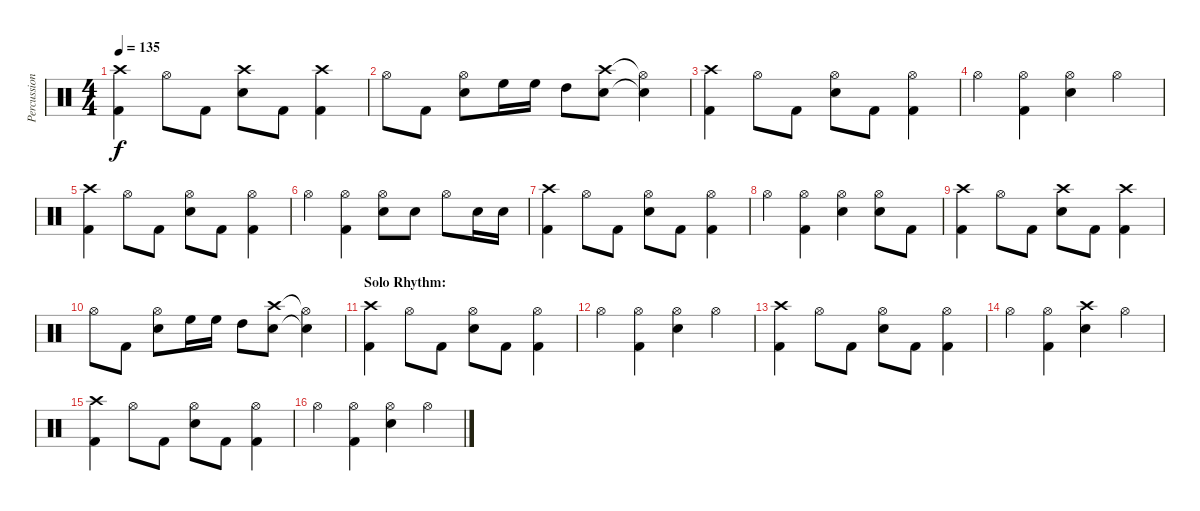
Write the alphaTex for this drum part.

\track ("Percussion" "Percussion") {instrument percussion}
\staff {score}
\articulation defaults
\ts (4 4)
\tempo 135
\clef neutral
\ks c
("Crash high (hit)" "Kick (hit) 2").4{dy f} "Hi-Hat (open)".8 "Kick (hit) 2".8 ("Crash high (hit)" "Electric Snare (hit)").8 "Kick (hit) 2".8 ("Crash high (hit)" "Kick (hit) 2").4 |
"Hi-Hat (open)".8 "Kick (hit) 2".8 ("Hi-Hat (open)" "Electric Snare (hit)").8 "High Floor Tom (hit)".16 "High Floor Tom (hit)".16 "High Tom (hit)".8 ("Crash high (hit)" "Electric Snare (hit)").8 ("Hi-Hat (open)"{t} "Snare (hit)"{t}).4 |
("Crash high (hit)" "Kick (hit) 2").4 "Hi-Hat (open)".8 "Kick (hit) 2".8 ("Hi-Hat (open)" "Electric Snare (hit)").8 "Kick (hit) 2".8 ("Hi-Hat (open)" "Kick (hit) 2").4 |
"Hi-Hat (open)".4 ("Hi-Hat (open)" "Kick (hit) 2").4 ("Hi-Hat (open)" "Electric Snare (hit)").4 "Hi-Hat (open)".4 |
("Crash high (hit)" "Kick (hit) 2").4 "Hi-Hat (open)".8 "Kick (hit) 2".8 ("Hi-Hat (open)" "Electric Snare (hit)").8 "Kick (hit) 2".8 ("Hi-Hat (open)" "Kick (hit) 2").4 |
"Hi-Hat (open)".4 ("Hi-Hat (open)" "Kick (hit) 2").4 ("Hi-Hat (open)" "Electric Snare (hit)").8 "Electric Snare (hit)".8 "Hi-Hat (open)".8 "Electric Snare (hit)".16 "Electric Snare (hit)".16 |
("Crash high (hit)" "Kick (hit) 2").4 "Hi-Hat (open)".8 "Kick (hit) 2".8 ("Hi-Hat (open)" "Electric Snare (hit)").8 "Kick (hit) 2".8 ("Hi-Hat (open)" "Kick (hit) 2").4 |
"Hi-Hat (open)".4 ("Hi-Hat (open)" "Kick (hit) 2").4 ("Hi-Hat (open)" "Electric Snare (hit)").4 ("Hi-Hat (open)" "Electric Snare (hit)").8 "Kick (hit) 2".8 |
("Crash high (hit)" "Kick (hit) 2").4 "Hi-Hat (open)".8 "Kick (hit) 2".8 ("Crash high (hit)" "Electric Snare (hit)").8 "Kick (hit) 2".8 ("Crash high (hit)" "Kick (hit) 2").4 |
"Hi-Hat (open)".8 "Kick (hit) 2".8 ("Hi-Hat (open)" "Electric Snare (hit)").8 "High Floor Tom (hit)".16 "High Floor Tom (hit)".16 "High Tom (hit)".8 ("Crash high (hit)" "Electric Snare (hit)").8 ("Hi-Hat (open)"{t} "Snare (hit)"{t}).4 |
\section ("" "Solo Rhythm:")
("Crash high (hit)" "Kick (hit) 2").4 "Hi-Hat (open)".8 "Kick (hit) 2".8 ("Hi-Hat (open)" "Electric Snare (hit)").8 "Kick (hit) 2".8 ("Hi-Hat (open)" "Kick (hit) 2").4 |
"Hi-Hat (open)".4 ("Hi-Hat (open)" "Kick (hit) 2").4 ("Hi-Hat (open)" "Electric Snare (hit)").4 "Hi-Hat (open)".4 |
("Crash high (hit)" "Kick (hit) 2").4 "Hi-Hat (open)".8 "Kick (hit) 2".8 ("Hi-Hat (open)" "Electric Snare (hit)").8 "Kick (hit) 2".8 ("Hi-Hat (open)" "Kick (hit) 2").4 |
"Hi-Hat (open)".4 ("Hi-Hat (open)" "Kick (hit) 2").4 ("Crash high (hit)" "Electric Snare (hit)").4 "Hi-Hat (open)".4 |
("Crash high (hit)" "Kick (hit) 2").4 "Hi-Hat (open)".8 "Kick (hit) 2".8 ("Hi-Hat (open)" "Electric Snare (hit)").8 "Kick (hit) 2".8 ("Hi-Hat (open)" "Kick (hit) 2").4 |
"Hi-Hat (open)".4 ("Hi-Hat (open)" "Kick (hit) 2").4 ("Hi-Hat (open)" "Electric Snare (hit)").4 "Hi-Hat (open)".4
